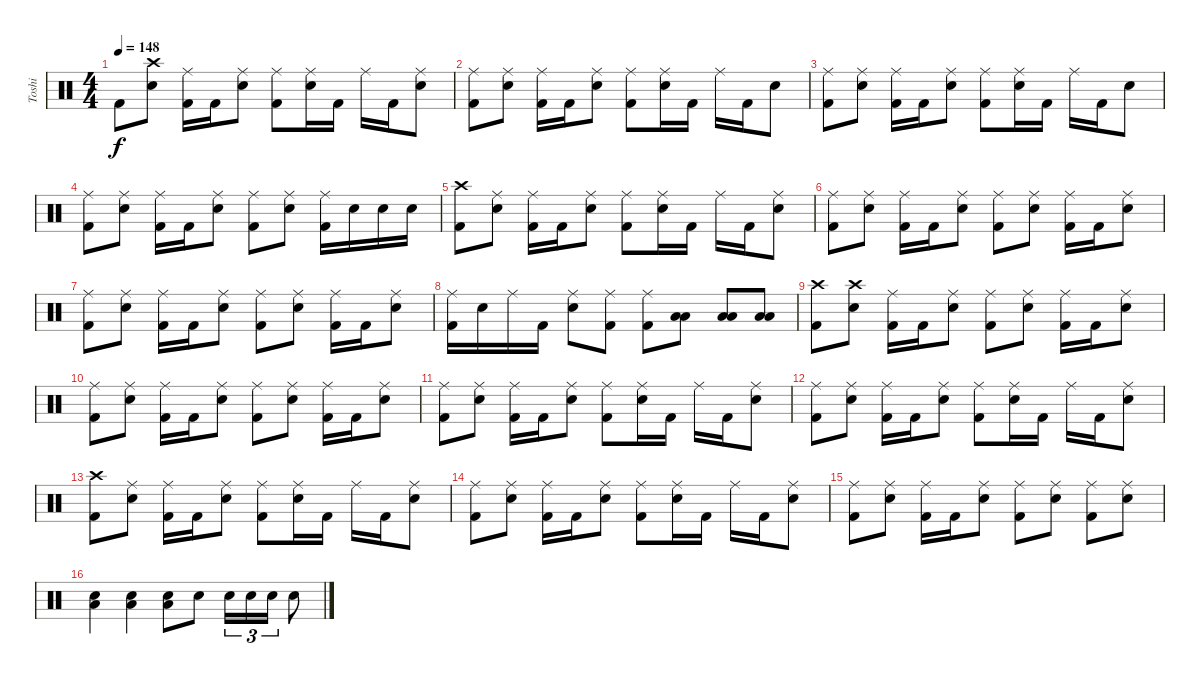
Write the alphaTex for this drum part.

\track ("Toshi" "Toshi") {instrument percussion}
\staff {score}
\articulation defaults
\ts (4 4)
\tempo 148
\clef neutral
\ks c "Kick (hit) 2".8{dy f}
("Crash high (hit)" "Snare (hit) 2").8 ("Ride (middle)" "Kick (hit) 2").16 "Kick (hit) 2".16 ("Ride (middle)" "Snare (hit) 2").8 ("Ride (middle)" "Kick (hit) 2").8 ("Ride (middle)" "Snare (hit) 2").16 "Kick (hit) 2".16 "Ride (middle)".16 "Kick (hit) 2".16 ("Ride (middle)" "Snare (hit) 2").8 |
("Ride (middle)" "Kick (hit) 2").8 ("Ride (middle)" "Snare (hit) 2").8 ("Ride (middle)" "Kick (hit) 2").16 "Kick (hit) 2".16 ("Ride (middle)" "Snare (hit) 2").8 ("Ride (middle)" "Kick (hit) 2").8 ("Ride (middle)" "Snare (hit) 2").16 "Kick (hit) 2".16 "Ride (middle)".16 "Kick (hit) 2".16 "Snare (hit) 2".8 |
("Ride (middle)" "Kick (hit) 2").8 ("Ride (middle)" "Snare (hit) 2").8 ("Ride (middle)" "Kick (hit) 2").16 "Kick (hit) 2".16 ("Ride (middle)" "Snare (hit) 2").8 ("Ride (middle)" "Kick (hit) 2").8 ("Ride (middle)" "Snare (hit) 2").16 "Kick (hit) 2".16 "Ride (middle)".16 "Kick (hit) 2".16 "Snare (hit) 2".8 |
("Ride (middle)" "Kick (hit) 2").8 ("Ride (middle)" "Snare (hit) 2").8 ("Ride (middle)" "Kick (hit) 2").16 "Kick (hit) 2".16 ("Ride (middle)" "Snare (hit) 2").8 ("Ride (middle)" "Kick (hit) 2").8 ("Ride (middle)" "Snare (hit) 2").8 ("Ride (middle)" "Kick (hit) 2").16 "Snare (hit) 2".16 "Snare (hit) 2".16 "Snare (hit) 2".16 |
("Crash high (hit)" "Kick (hit) 2").8 ("Ride (middle)" "Snare (hit) 2").8 ("Ride (middle)" "Kick (hit) 2").16 "Kick (hit) 2".16 ("Ride (middle)" "Snare (hit) 2").8 ("Ride (middle)" "Kick (hit) 2").8 ("Ride (middle)" "Snare (hit) 2").16 "Kick (hit) 2".16 "Ride (middle)".16 "Kick (hit) 2".16 ("Ride (middle)" "Snare (hit) 2").8 |
("Ride (middle)" "Kick (hit) 2").8 ("Ride (middle)" "Snare (hit) 2").8 ("Ride (middle)" "Kick (hit) 2").16 "Kick (hit) 2".16 ("Ride (middle)" "Snare (hit) 2").8 ("Ride (middle)" "Kick (hit) 2").8 ("Ride (middle)" "Snare (hit) 2").8 ("Ride (middle)" "Kick (hit) 2").16 "Kick (hit) 2".16 ("Ride (middle)" "Snare (hit) 2").8 |
("Ride (middle)" "Kick (hit) 2").8 ("Ride (middle)" "Snare (hit) 2").8 ("Ride (middle)" "Kick (hit) 2").16 "Kick (hit) 2".16 ("Ride (middle)" "Snare (hit) 2").8 ("Ride (middle)" "Kick (hit) 2").8 ("Ride (middle)" "Snare (hit) 2").8 ("Ride (middle)" "Kick (hit) 2").16 "Kick (hit) 2".16 ("Ride (middle)" "Snare (hit) 2").8 |
("Ride (middle)" "Kick (hit) 2").16 "Snare (hit) 2".16 "Ride (middle)".16 "Kick (hit) 2".16 ("Ride (middle)" "Snare (hit) 2").8 ("Ride (middle)" "Kick (hit) 2").8 ("Ride (middle)" "Kick (hit) 2").8 ("Low Tom (hit)" "Low Floor Tom (hit)").8 ("Low Tom (hit)" "Low Floor Tom (hit)").8 ("Low Tom (hit)" "Low Floor Tom (hit)").8 |
("Crash high (hit)" "Kick (hit) 2").8 ("Crash high (hit)" "Snare (hit) 2").8 ("Ride (middle)" "Kick (hit) 2").16 "Kick (hit) 2".16 ("Ride (middle)" "Snare (hit) 2").8 ("Ride (middle)" "Kick (hit) 2").8 ("Ride (middle)" "Snare (hit) 2").8 ("Ride (middle)" "Kick (hit) 2").16 "Kick (hit) 2".16 ("Ride (middle)" "Snare (hit) 2").8 |
("Ride (middle)" "Kick (hit) 2").8 ("Ride (middle)" "Snare (hit) 2").8 ("Ride (middle)" "Kick (hit) 2").16 "Kick (hit) 2".16 ("Ride (middle)" "Snare (hit) 2").8 ("Ride (middle)" "Kick (hit) 2").8 ("Ride (middle)" "Snare (hit) 2").8 ("Ride (middle)" "Kick (hit) 2").16 "Kick (hit) 2".16 ("Ride (middle)" "Snare (hit) 2").8 |
("Ride (middle)" "Kick (hit) 2").8 ("Ride (middle)" "Snare (hit) 2").8 ("Ride (middle)" "Kick (hit) 2").16 "Kick (hit) 2".16 ("Ride (middle)" "Snare (hit) 2").8 ("Ride (middle)" "Kick (hit) 2").8 ("Ride (middle)" "Snare (hit) 2").16 "Kick (hit) 2".16 "Ride (middle)".16 "Kick (hit) 2".16 ("Ride (middle)" "Snare (hit) 2").8 |
("Ride (middle)" "Kick (hit) 2").8 ("Ride (middle)" "Snare (hit) 2").8 ("Ride (middle)" "Kick (hit) 2").16 "Kick (hit) 2".16 ("Ride (middle)" "Snare (hit) 2").8 ("Ride (middle)" "Kick (hit) 2").8 ("Ride (middle)" "Snare (hit) 2").16 "Kick (hit) 2".16 "Ride (middle)".16 "Kick (hit) 2".16 ("Ride (middle)" "Snare (hit) 2").8 |
("Crash high (hit)" "Kick (hit) 2").8 ("Ride (middle)" "Snare (hit) 2").8 ("Ride (middle)" "Kick (hit) 2").16 "Kick (hit) 2".16 ("Ride (middle)" "Snare (hit) 2").8 ("Ride (middle)" "Kick (hit) 2").8 ("Ride (middle)" "Snare (hit) 2").16 "Kick (hit) 2".16 "Ride (middle)".16 "Kick (hit) 2".16 ("Ride (middle)" "Snare (hit) 2").8 |
("Ride (middle)" "Kick (hit) 2").8 ("Ride (middle)" "Snare (hit) 2").8 ("Ride (middle)" "Kick (hit) 2").16 "Kick (hit) 2".16 ("Ride (middle)" "Snare (hit) 2").8 ("Ride (middle)" "Kick (hit) 2").8 ("Ride (middle)" "Snare (hit) 2").16 "Kick (hit) 2".16 "Ride (middle)".16 "Kick (hit) 2".16 ("Ride (middle)" "Snare (hit) 2").8 |
("Ride (middle)" "Kick (hit) 2").8 ("Ride (middle)" "Snare (hit) 2").8 ("Ride (middle)" "Kick (hit) 2").16 "Kick (hit) 2".16 ("Ride (middle)" "Snare (hit) 2").8 ("Ride (middle)" "Kick (hit) 2").8 ("Ride (middle)" "Snare (hit) 2").8 ("Ride (middle)" "Kick (hit) 2").8 ("Ride (middle)" "Snare (hit) 2").8 |
("Low Tom (hit)" "Snare (hit) 2").4 ("Low Tom (hit)" "Snare (hit) 2").4 ("Low Tom (hit)" "Snare (hit) 2").8 "Snare (hit) 2".8 "Snare (hit) 2".16{tu (3 2)} "Snare (hit) 2".16{tu (3 2)} "Snare (hit) 2".16{tu (3 2)} "Snare (hit) 2".8
